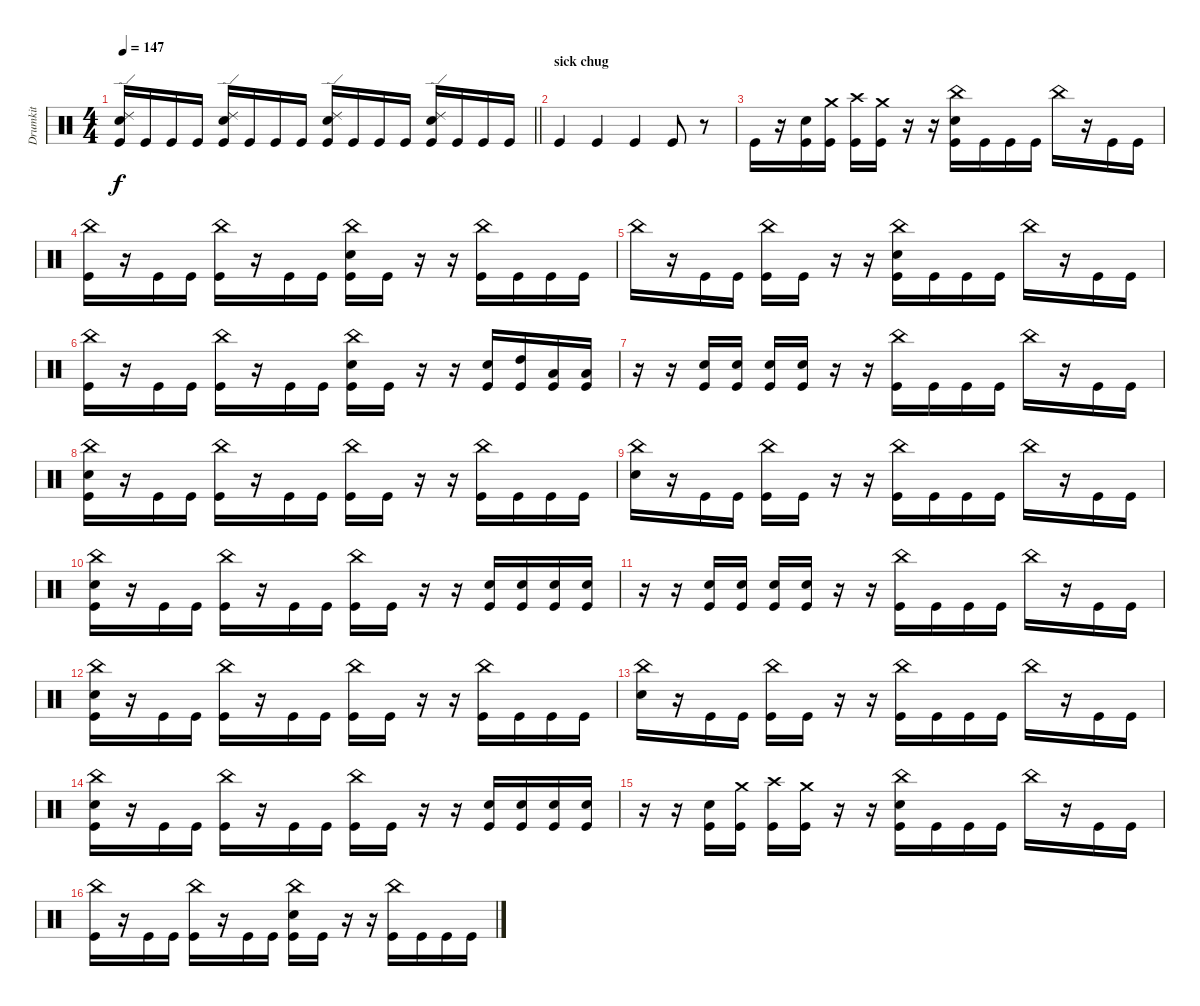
\track ("Drumkit" "Drumkit") {instrument percussion}
\staff {score}
\articulation defaults
\ts (4 4)
\tempo 147
\clef neutral
\barLineRight lightlight
\ks c
("Ride (edge) 2" "Snare (hit) 2" "Kick (hit)").16{dy f} "Kick (hit)".16 "Kick (hit)".16 "Kick (hit)".16 ("Ride (edge) 2" "Snare (hit) 2" "Kick (hit)").16 "Kick (hit)".16 "Kick (hit)".16 "Kick (hit)".16 ("Ride (edge) 2" "Snare (hit) 2" "Kick (hit)").16 "Kick (hit)".16 "Kick (hit)".16 "Kick (hit)".16 ("Ride (edge) 2" "Snare (hit) 2" "Kick (hit)").16 "Kick (hit)".16 "Kick (hit)".16 "Kick (hit)".16 |
\section ("" "sick chug")
"Kick (hit)".4 "Kick (hit)".4 "Kick (hit)".4 "Kick (hit)".8 r.8 |
"Kick (hit)".16 r.16 ("Snare (hit) 2" "Kick (hit)").16 ("Crash medium (hit)" "Kick (hit)").16 ("Crash high (hit)" "Kick (hit)").16 ("Crash medium (hit)" "Kick (hit)").16 r.16 r.16 ("China (hit)" "Snare (hit) 2" "Kick (hit)").16 "Kick (hit)".16 "Kick (hit)".16 "Kick (hit)".16 "China (hit)".16 r.16 "Kick (hit)".16 "Kick (hit)".16 |
("China (hit)" "Kick (hit)").16 r.16 "Kick (hit)".16 "Kick (hit)".16 ("China (hit)" "Kick (hit)").16 r.16 "Kick (hit)".16 "Kick (hit)".16 ("China (hit)" "Snare (hit) 2" "Kick (hit)").16 "Kick (hit)".16 r.16 r.16 ("China (hit)" "Kick (hit)").16 "Kick (hit)".16 "Kick (hit)".16 "Kick (hit)".16 |
"China (hit)".16 r.16 "Kick (hit)".16 "Kick (hit)".16 ("China (hit)" "Kick (hit)").16 "Kick (hit)".16 r.16 r.16 ("China (hit)" "Snare (hit) 2" "Kick (hit)").16 "Kick (hit)".16 "Kick (hit)".16 "Kick (hit)".16 "China (hit)".16 r.16 "Kick (hit)".16 "Kick (hit)".16 |
("China (hit)" "Kick (hit)").16 r.16 "Kick (hit)".16 "Kick (hit)".16 ("China (hit)" "Kick (hit)").16 r.16 "Kick (hit)".16 "Kick (hit)".16 ("China (hit)" "Snare (hit) 2" "Kick (hit)").16 "Kick (hit)".16 r.16 r.16 ("Snare (hit) 2" "Kick (hit)").16 ("High Tom (hit)" "Kick (hit)").16 ("Low Tom (hit)" "Kick (hit)").16 ("Low Tom (hit)" "Kick (hit)").16 |
r.16 r.16 ("Snare (hit) 2" "Kick (hit)").16 ("Snare (hit) 2" "Kick (hit)").16 ("Snare (hit) 2" "Kick (hit)").16 ("Snare (hit) 2" "Kick (hit)").16 r.16 r.16 ("China (hit)" "Kick (hit)").16 "Kick (hit)".16 "Kick (hit)".16 "Kick (hit)".16 "China (hit)".16 r.16 "Kick (hit)".16 "Kick (hit)".16 |
("China (hit)" "Snare (hit) 2" "Kick (hit)").16 r.16 "Kick (hit)".16 "Kick (hit)".16 ("China (hit)" "Kick (hit)").16 r.16 "Kick (hit)".16 "Kick (hit)".16 ("China (hit)" "Kick (hit)").16 "Kick (hit)".16 r.16 r.16 ("China (hit)" "Kick (hit)").16 "Kick (hit)".16 "Kick (hit)".16 "Kick (hit)".16 |
("China (hit)" "Snare (hit) 2").16 r.16 "Kick (hit)".16 "Kick (hit)".16 ("China (hit)" "Kick (hit)").16 "Kick (hit)".16 r.16 r.16 ("China (hit)" "Kick (hit)").16 "Kick (hit)".16 "Kick (hit)".16 "Kick (hit)".16 "China (hit)".16 r.16 "Kick (hit)".16 "Kick (hit)".16 |
("China (hit)" "Snare (hit) 2" "Kick (hit)").16 r.16 "Kick (hit)".16 "Kick (hit)".16 ("China (hit)" "Kick (hit)").16 r.16 "Kick (hit)".16 "Kick (hit)".16 ("China (hit)" "Kick (hit)").16 "Kick (hit)".16 r.16 r.16 ("Snare (hit) 2" "Kick (hit)").16 ("Snare (hit) 2" "Kick (hit)").16 ("Snare (hit) 2" "Kick (hit)").16 ("Snare (hit) 2" "Kick (hit)").16 |
r.16 r.16 ("Snare (hit) 2" "Kick (hit)").16 ("Snare (hit) 2" "Kick (hit)").16 ("Snare (hit) 2" "Kick (hit)").16 ("Snare (hit) 2" "Kick (hit)").16 r.16 r.16 ("China (hit)" "Kick (hit)").16 "Kick (hit)".16 "Kick (hit)".16 "Kick (hit)".16 "China (hit)".16 r.16 "Kick (hit)".16 "Kick (hit)".16 |
("China (hit)" "Snare (hit) 2" "Kick (hit)").16 r.16 "Kick (hit)".16 "Kick (hit)".16 ("China (hit)" "Kick (hit)").16 r.16 "Kick (hit)".16 "Kick (hit)".16 ("China (hit)" "Kick (hit)").16 "Kick (hit)".16 r.16 r.16 ("China (hit)" "Kick (hit)").16 "Kick (hit)".16 "Kick (hit)".16 "Kick (hit)".16 |
("China (hit)" "Snare (hit) 2").16 r.16 "Kick (hit)".16 "Kick (hit)".16 ("China (hit)" "Kick (hit)").16 "Kick (hit)".16 r.16 r.16 ("China (hit)" "Kick (hit)").16 "Kick (hit)".16 "Kick (hit)".16 "Kick (hit)".16 "China (hit)".16 r.16 "Kick (hit)".16 "Kick (hit)".16 |
("China (hit)" "Snare (hit) 2" "Kick (hit)").16 r.16 "Kick (hit)".16 "Kick (hit)".16 ("China (hit)" "Kick (hit)").16 r.16 "Kick (hit)".16 "Kick (hit)".16 ("China (hit)" "Kick (hit)").16 "Kick (hit)".16 r.16 r.16 ("Snare (hit) 2" "Kick (hit)").16 ("Snare (hit) 2" "Kick (hit)").16 ("Snare (hit) 2" "Kick (hit)").16 ("Snare (hit) 2" "Kick (hit)").16 |
r.16 r.16 ("Snare (hit) 2" "Kick (hit)").16 ("Crash medium (hit)" "Kick (hit)").16 ("Crash high (hit)" "Kick (hit)").16 ("Crash medium (hit)" "Kick (hit)").16 r.16 r.16 ("China (hit)" "Snare (hit) 2" "Kick (hit)").16 "Kick (hit)".16 "Kick (hit)".16 "Kick (hit)".16 "China (hit)".16 r.16 "Kick (hit)".16 "Kick (hit)".16 |
("China (hit)" "Kick (hit)").16 r.16 "Kick (hit)".16 "Kick (hit)".16 ("China (hit)" "Kick (hit)").16 r.16 "Kick (hit)".16 "Kick (hit)".16 ("China (hit)" "Snare (hit) 2" "Kick (hit)").16 "Kick (hit)".16 r.16 r.16 ("China (hit)" "Kick (hit)").16 "Kick (hit)".16 "Kick (hit)".16 "Kick (hit)".16
